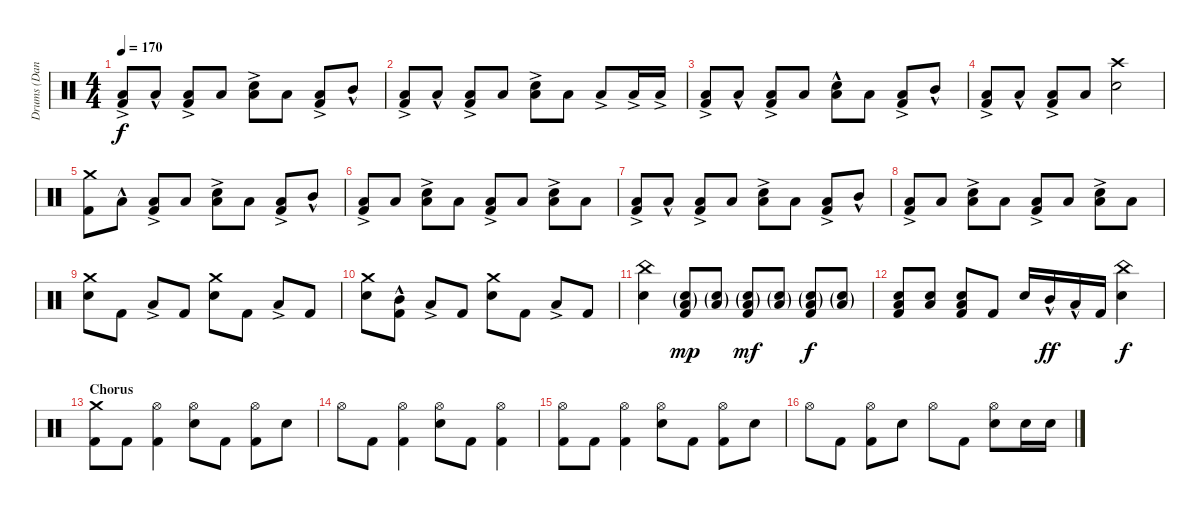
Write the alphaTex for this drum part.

\track ("Drums (Dan Trapp)" "Drums (Dan") {instrument percussion}
\staff {score}
\articulation defaults
\ts (4 4)
\tempo 170
\clef neutral
\ks c
("Kick (hit) 2" "Low Tom (hit)"{ac}).8{dy f} "Low Tom (hit)"{hac}.8 ("Kick (hit) 2" "Low Tom (hit)"{ac}).8 "Low Tom (hit)".8 ("Low Tom (hit)"{ac} "Snare (hit) 2").8 "Low Tom (hit)".8 ("Kick (hit) 2" "Low Tom (hit)"{ac}).8 "Mid Tom (hit)"{hac}.8 |
("Low Tom (hit)"{ac} "Kick (hit) 2").8 "Low Tom (hit)"{hac}.8 ("Low Tom (hit)"{ac} "Kick (hit) 2").8 "Low Tom (hit)".8 ("Snare (hit) 2" "Low Tom (hit)"{ac}).8 "Low Tom (hit)".8 "Low Tom (hit)"{ac}.8 "Low Tom (hit)"{ac}.16 "Low Tom (hit)"{ac}.16 |
("Low Tom (hit)"{ac} "Kick (hit) 2").8 "Low Tom (hit)"{hac}.8 ("Kick (hit) 2" "Low Tom (hit)"{ac}).8 "Low Tom (hit)".8 ("Snare (hit) 2" "Low Tom (hit)"{hac}).8 "Low Tom (hit)".8 ("Kick (hit) 2" "Low Tom (hit)"{ac}).8 "Mid Tom (hit)"{hac}.8 |
("Low Tom (hit)"{ac} "Kick (hit) 2").8 "Low Tom (hit)"{hac}.8 ("Low Tom (hit)"{ac} "Kick (hit) 2").8 "Low Tom (hit)".8 ("Snare (hit) 2" "Crash high (hit)").2 |
("Kick (hit) 2" "Crash medium (hit)").8 "Low Tom (hit)"{hac}.8 ("Kick (hit) 2" "Low Tom (hit)"{ac}).8 "Low Tom (hit)".8 ("Low Tom (hit)"{ac} "Snare (hit) 2").8 "Low Tom (hit)".8 ("Kick (hit) 2" "Low Tom (hit)"{ac}).8 "Mid Tom (hit)"{hac}.8 |
("Low Tom (hit)"{ac} "Kick (hit) 2").8 "Low Tom (hit)".8 ("Low Tom (hit)"{ac} "Snare (hit) 2").8 "Low Tom (hit)".8 ("Low Tom (hit)"{ac} "Kick (hit) 2").8 "Low Tom (hit)".8 ("Low Tom (hit)"{ac} "Snare (hit) 2").8 "Low Tom (hit)".8 |
("Kick (hit) 2" "Low Tom (hit)"{ac}).8 "Low Tom (hit)"{hac}.8 ("Low Tom (hit)"{ac} "Kick (hit) 2").8 "Low Tom (hit)".8 ("Snare (hit) 2" "Low Tom (hit)"{ac}).8 "Low Tom (hit)".8 ("Low Tom (hit)"{ac} "Kick (hit) 2").8 "Mid Tom (hit)"{hac}.8 |
("Kick (hit) 2" "Low Tom (hit)"{ac}).8 "Low Tom (hit)".8 ("Low Tom (hit)"{ac} "Snare (hit) 2").8 "Low Tom (hit)".8 ("Low Tom (hit)"{ac} "Kick (hit) 2").8 "Low Tom (hit)".8 ("Snare (hit) 2" "Low Tom (hit)"{ac}).8 "Low Tom (hit)".8 |
("Snare (hit) 2" "Crash medium (hit)").8 "Kick (hit) 2".8 "Low Tom (hit)"{ac}.8 "Kick (hit) 2".8 ("Snare (hit) 2" "Crash medium (hit)").8 "Kick (hit) 2".8 "Low Tom (hit)"{ac}.8 "Kick (hit) 2".8 |
("Snare (hit) 2" "Crash medium (hit)").8 ("Mid Tom (hit)"{hac} "Kick (hit) 2").8 "Low Tom (hit)"{ac}.8 "Kick (hit) 2".8 ("Snare (hit) 2" "Crash medium (hit)").8 "Kick (hit) 2".8 "Low Tom (hit)"{ac}.8 "Kick (hit) 2".8 |
("Snare (hit) 2" "China (hit)").4 ("Snare (hit) 2"{g} "Low Tom (hit)"{g} "Kick (hit) 2").8{dy mp} ("Low Tom (hit)"{g} "Snare (hit) 2"{g}).8 ("Low Tom (hit)"{g} "Snare (hit) 2"{g} "Kick (hit) 2").8{dy mf} ("Low Tom (hit)"{g} "Snare (hit) 2"{g}).8 ("Low Tom (hit)"{g} "Snare (hit) 2"{g} "Kick (hit) 2").8{dy f} ("Low Tom (hit)"{g} "Snare (hit) 2"{g}).8 |
("Low Tom (hit)" "Snare (hit) 2" "Kick (hit) 2").8 ("Snare (hit) 2" "Low Tom (hit)").8 ("Low Tom (hit)" "Kick (hit) 2" "Snare (hit) 2").8 "Kick (hit) 2".8 "Snare (hit) 2".16 "Mid Tom (hit)"{hac}.16{dy ff} "Low Tom (hit)"{hac}.16 "Kick (hit) 2".16 ("Snare (hit) 2" "China (hit)").4{dy f} |
\section ("" "Chorus")
("Kick (hit) 2" "Crash medium (hit)").8 "Kick (hit) 2".8 ("Kick (hit) 2" "Hi-Hat (open)").4 ("Snare (hit) 2" "Hi-Hat (open)").8 "Kick (hit) 2".8 ("Kick (hit) 2" "Hi-Hat (open)").8 "Snare (hit) 2".8 |
"Hi-Hat (open)".8 "Kick (hit) 2".8 ("Kick (hit) 2" "Hi-Hat (open)").4 ("Snare (hit) 2" "Hi-Hat (open)").8 "Kick (hit) 2".8 ("Kick (hit) 2" "Hi-Hat (open)").4 |
("Kick (hit) 2" "Hi-Hat (open)").8 "Kick (hit) 2".8 ("Kick (hit) 2" "Hi-Hat (open)").4 ("Snare (hit) 2" "Hi-Hat (open)").8 "Kick (hit) 2".8 ("Kick (hit) 2" "Hi-Hat (open)").8 "Snare (hit) 2".8 |
"Hi-Hat (open)".8 "Kick (hit) 2".8 ("Kick (hit) 2" "Hi-Hat (open)").8 "Snare (hit) 2".8 "Hi-Hat (open)".8 "Kick (hit) 2".8 ("Hi-Hat (open)" "Snare (hit) 2").8 "Snare (hit) 2".16 "Snare (hit) 2".16
